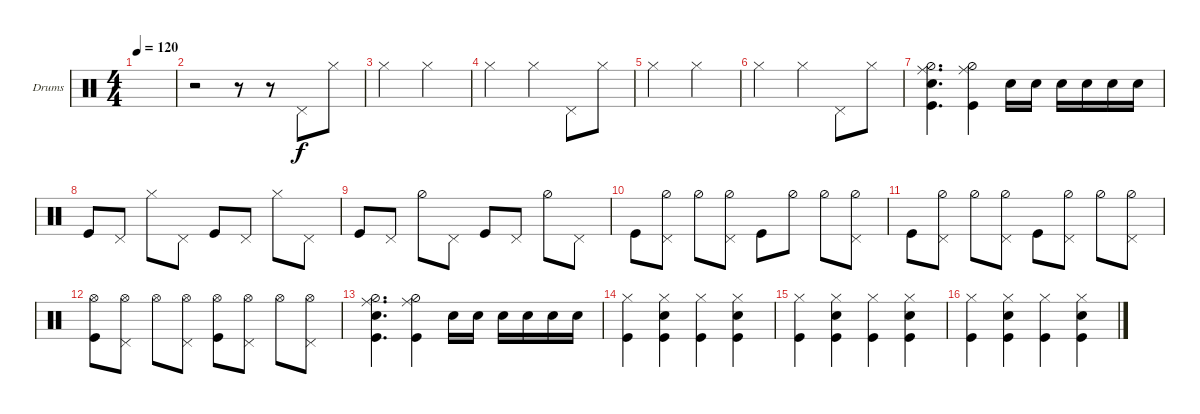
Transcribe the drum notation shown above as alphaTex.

\defaultSystemsLayout 4
\bracketExtendMode groupsimilarinstruments
\firstSystemTrackNameOrientation horizontal
\otherSystemsTrackNameOrientation horizontal
\track ("Drumkit" "Drums") {instrument percussion}
\staff {score}
\articulation defaults
\ts (4 4)
\tempo 120
\clef neutral
\ks c
|
r.2 r.8 r.8 "Pedal Hi-Hat (hit)".8 "Hi-Hat (closed)".8 |
"Hi-Hat (closed)".2 "Hi-Hat (closed)".2 |
"Hi-Hat (closed)".2 "Hi-Hat (closed)".4 "Pedal Hi-Hat (hit)".8 "Hi-Hat (closed)".8 |
"Hi-Hat (closed)".2 "Hi-Hat (closed)".2 |
"Hi-Hat (closed)".2 "Hi-Hat (closed)".4 "Pedal Hi-Hat (hit)".8 "Hi-Hat (closed)".8 |
("Kick (hit)" "Ride (middle)" "Snare (hit) 2" "Hi-Hat (half)").4{d} ("Kick (hit)" "Ride (middle)" "Hi-Hat (half)").4 "Snare (hit) 2".16 "Snare (hit) 2".16 "Snare (hit) 2".16 "Snare (hit) 2".16 "Snare (hit) 2".16 "Snare (hit) 2".16 |
"Kick (hit)".8 "Pedal Hi-Hat (hit)".8 "Hi-Hat (closed)".8 "Pedal Hi-Hat (hit)".8 "Kick (hit)".8 "Pedal Hi-Hat (hit)".8 "Hi-Hat (closed)".8 "Pedal Hi-Hat (hit)".8 |
"Kick (hit)".8 "Pedal Hi-Hat (hit)".8 "Hi-Hat (half)".8 "Pedal Hi-Hat (hit)".8 "Kick (hit)".8 "Pedal Hi-Hat (hit)".8 "Hi-Hat (half)".8 "Pedal Hi-Hat (hit)".8 |
"Kick (hit)".8 ("Pedal Hi-Hat (hit)" "Hi-Hat (half)").8 "Hi-Hat (half)".8 ("Pedal Hi-Hat (hit)" "Hi-Hat (half)").8 "Kick (hit)".8 "Hi-Hat (half)".8 "Hi-Hat (half)".8 ("Pedal Hi-Hat (hit)" "Hi-Hat (half)").8 |
"Kick (hit)".8 ("Pedal Hi-Hat (hit)" "Hi-Hat (half)").8 "Hi-Hat (half)".8 ("Pedal Hi-Hat (hit)" "Hi-Hat (half)").8 "Kick (hit)".8 ("Pedal Hi-Hat (hit)" "Hi-Hat (half)").8 "Hi-Hat (half)".8 ("Pedal Hi-Hat (hit)" "Hi-Hat (half)").8 |
("Kick (hit)" "Hi-Hat (open)").8 ("Pedal Hi-Hat (hit)" "Hi-Hat (open)").8 "Hi-Hat (open)".8 ("Pedal Hi-Hat (hit)" "Hi-Hat (open)").8 ("Kick (hit)" "Hi-Hat (open)").8 ("Pedal Hi-Hat (hit)" "Hi-Hat (open)").8 "Hi-Hat (open)".8 ("Pedal Hi-Hat (hit)" "Hi-Hat (open)").8 |
("Kick (hit)" "Ride (middle)" "Snare (hit) 2" "Hi-Hat (half)").4{d} ("Kick (hit)" "Ride (middle)" "Hi-Hat (half)").4 "Snare (hit) 2".16 "Snare (hit) 2".16 "Snare (hit) 2".16 "Snare (hit) 2".16 "Snare (hit) 2".16 "Snare (hit) 2".16 |
("Kick (hit)" "Hi-Hat (closed)").4 ("Kick (hit)" "Snare (hit) 2" "Hi-Hat (closed)").4 ("Kick (hit)" "Hi-Hat (closed)").4 ("Kick (hit)" "Snare (hit) 2" "Hi-Hat (closed)").4 |
("Kick (hit)" "Hi-Hat (closed)").4 ("Kick (hit)" "Hi-Hat (closed)" "Snare (hit) 2").4 ("Kick (hit)" "Hi-Hat (closed)").4 ("Kick (hit)" "Hi-Hat (closed)" "Snare (hit) 2").4 |
("Kick (hit)" "Hi-Hat (closed)").4 ("Kick (hit)" "Snare (hit) 2" "Hi-Hat (closed)").4 ("Kick (hit)" "Hi-Hat (closed)").4 ("Kick (hit)" "Snare (hit) 2" "Hi-Hat (closed)").4
